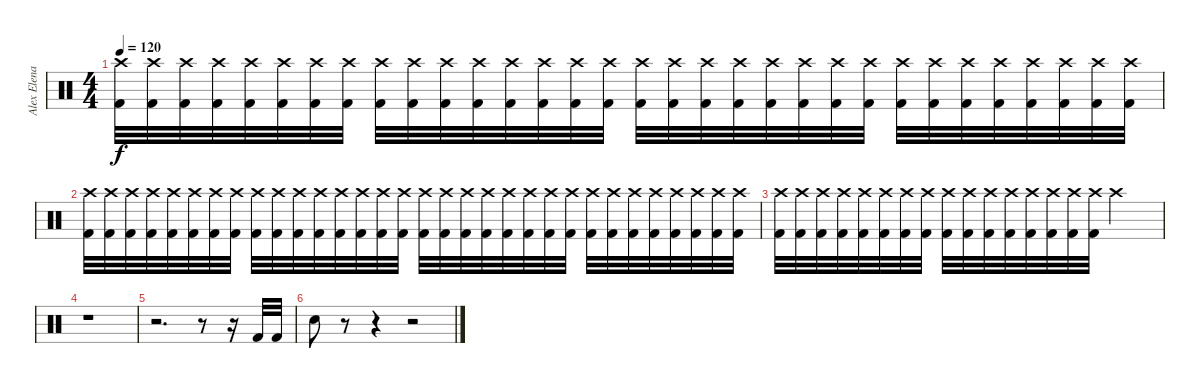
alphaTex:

\track ("Alex Elena (Percussion)" "Alex Elena") {instrument percussion}
\staff {score}
\articulation defaults
\ts (4 4)
\tempo 120
\clef neutral
\ks c
("Crash high (hit)" "Kick (hit) 2").32{dy f} ("Crash high (hit)" "Kick (hit) 2").32 ("Crash high (hit)" "Kick (hit) 2").32 ("Crash high (hit)" "Kick (hit) 2").32 ("Crash high (hit)" "Kick (hit) 2").32 ("Crash high (hit)" "Kick (hit) 2").32 ("Crash high (hit)" "Kick (hit) 2").32 ("Crash high (hit)" "Kick (hit) 2").32 ("Crash high (hit)" "Kick (hit) 2").32 ("Crash high (hit)" "Kick (hit) 2").32 ("Crash high (hit)" "Kick (hit) 2").32 ("Crash high (hit)" "Kick (hit) 2").32 ("Crash high (hit)" "Kick (hit) 2").32 ("Crash high (hit)" "Kick (hit) 2").32 ("Crash high (hit)" "Kick (hit) 2").32 ("Crash high (hit)" "Kick (hit) 2").32 ("Crash high (hit)" "Kick (hit) 2").32 ("Crash high (hit)" "Kick (hit) 2").32 ("Crash high (hit)" "Kick (hit) 2").32 ("Crash high (hit)" "Kick (hit) 2").32 ("Crash high (hit)" "Kick (hit) 2").32 ("Crash high (hit)" "Kick (hit) 2").32 ("Crash high (hit)" "Kick (hit) 2").32 ("Crash high (hit)" "Kick (hit) 2").32 ("Crash high (hit)" "Kick (hit) 2").32 ("Crash high (hit)" "Kick (hit) 2").32 ("Crash high (hit)" "Kick (hit) 2").32 ("Crash high (hit)" "Kick (hit) 2").32 ("Crash high (hit)" "Kick (hit) 2").32 ("Crash high (hit)" "Kick (hit) 2").32 ("Crash high (hit)" "Kick (hit) 2").32 ("Crash high (hit)" "Kick (hit) 2").32 |
("Crash high (hit)" "Kick (hit) 2").32 ("Crash high (hit)" "Kick (hit) 2").32 ("Crash high (hit)" "Kick (hit) 2").32 ("Crash high (hit)" "Kick (hit) 2").32 ("Crash high (hit)" "Kick (hit) 2").32 ("Crash high (hit)" "Kick (hit) 2").32 ("Crash high (hit)" "Kick (hit) 2").32 ("Crash high (hit)" "Kick (hit) 2").32 ("Crash high (hit)" "Kick (hit) 2").32 ("Crash high (hit)" "Kick (hit) 2").32 ("Crash high (hit)" "Kick (hit) 2").32 ("Crash high (hit)" "Kick (hit) 2").32 ("Crash high (hit)" "Kick (hit) 2").32 ("Crash high (hit)" "Kick (hit) 2").32 ("Crash high (hit)" "Kick (hit) 2").32 ("Crash high (hit)" "Kick (hit) 2").32 ("Crash high (hit)" "Kick (hit) 2").32 ("Crash high (hit)" "Kick (hit) 2").32 ("Crash high (hit)" "Kick (hit) 2").32 ("Crash high (hit)" "Kick (hit) 2").32 ("Crash high (hit)" "Kick (hit) 2").32 ("Crash high (hit)" "Kick (hit) 2").32 ("Crash high (hit)" "Kick (hit) 2").32 ("Crash high (hit)" "Kick (hit) 2").32 ("Crash high (hit)" "Kick (hit) 2").32 ("Crash high (hit)" "Kick (hit) 2").32 ("Crash high (hit)" "Kick (hit) 2").32 ("Crash high (hit)" "Kick (hit) 2").32 ("Crash high (hit)" "Kick (hit) 2").32 ("Crash high (hit)" "Kick (hit) 2").32 ("Crash high (hit)" "Kick (hit) 2").32 ("Crash high (hit)" "Kick (hit) 2").32 |
("Crash high (hit)" "Kick (hit) 2").32 ("Crash high (hit)" "Kick (hit) 2").32 ("Crash high (hit)" "Kick (hit) 2").32 ("Crash high (hit)" "Kick (hit) 2").32 ("Crash high (hit)" "Kick (hit) 2").32 ("Crash high (hit)" "Kick (hit) 2").32 ("Crash high (hit)" "Kick (hit) 2").32 ("Crash high (hit)" "Kick (hit) 2").32 ("Crash high (hit)" "Kick (hit) 2").32 ("Crash high (hit)" "Kick (hit) 2").32 ("Crash high (hit)" "Kick (hit) 2").32 ("Crash high (hit)" "Kick (hit) 2").32 ("Crash high (hit)" "Kick (hit) 2").32 ("Crash high (hit)" "Kick (hit) 2").32 ("Crash high (hit)" "Kick (hit) 2").32 ("Crash high (hit)" "Kick (hit) 2").32 "Crash high (hit)".2 |
r.1 |
r.2{d} r.8 r.16 "Kick (hit) 2".32 "Kick (hit) 2".32 |
"Snare (hit) 2".8 r.8 r.4 r.2
